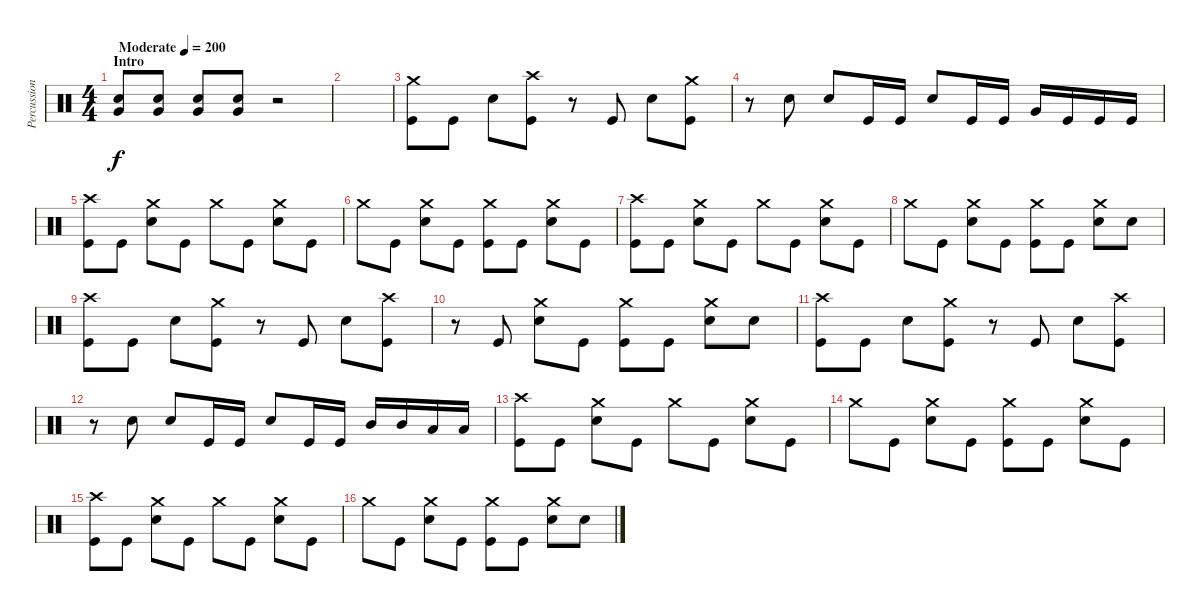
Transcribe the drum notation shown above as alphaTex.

\track ("Percussion" "Percussion") {instrument percussion}
\staff {score}
\articulation defaults
\ts (4 4)
\section ("" "Intro")
\tempo (200 "Moderate")
\clef neutral
\ks c
("Very Low Tom (hit)" "Electric Snare (hit)").8{dy f} ("Very Low Tom (hit)" "Electric Snare (hit)").8 ("Very Low Tom (hit)" "Electric Snare (hit)").8 ("Very Low Tom (hit)" "Electric Snare (hit)").8 r.2 |
|
("Crash medium (hit)" "Kick (hit)").8 "Kick (hit)".8 "Electric Snare (hit)".8 ("Crash high (hit)" "Kick (hit)").8 r.8 "Kick (hit)".8 "Electric Snare (hit)".8 ("Crash medium (hit)" "Kick (hit)").8 |
r.8 "Electric Snare (hit)".8 "Electric Snare (hit)".8 "Kick (hit)".16 "Kick (hit)".16 "Electric Snare (hit)".8 "Kick (hit)".16 "Kick (hit)".16 "Very Low Tom (hit)".16 "Kick (hit)".16 "Kick (hit)".16 "Kick (hit)".16 |
("Crash high (hit)" "Kick (hit)").8 "Kick (hit)".8 ("Crash medium (hit)" "Electric Snare (hit)").8 "Kick (hit)".8 "Crash medium (hit)".8 "Kick (hit)".8 ("Crash medium (hit)" "Electric Snare (hit)").8 "Kick (hit)".8 |
"Crash medium (hit)".8 "Kick (hit)".8 ("Crash medium (hit)" "Electric Snare (hit)").8 "Kick (hit)".8 ("Crash medium (hit)" "Kick (hit)").8 "Kick (hit)".8 ("Crash medium (hit)" "Electric Snare (hit)").8 "Kick (hit)".8 |
("Crash high (hit)" "Kick (hit)").8 "Kick (hit)".8 ("Crash medium (hit)" "Electric Snare (hit)").8 "Kick (hit)".8 "Crash medium (hit)".8 "Kick (hit)".8 ("Crash medium (hit)" "Electric Snare (hit)").8 "Kick (hit)".8 |
"Crash medium (hit)".8 "Kick (hit)".8 ("Crash medium (hit)" "Electric Snare (hit)").8 "Kick (hit)".8 ("Crash medium (hit)" "Kick (hit)").8 "Kick (hit)".8 ("Crash medium (hit)" "Electric Snare (hit)").8 "Electric Snare (hit)".8 |
("Crash high (hit)" "Kick (hit)").8 "Kick (hit)".8 "Electric Snare (hit)".8 ("Crash medium (hit)" "Kick (hit)").8 r.8 "Kick (hit)".8 "Electric Snare (hit)".8 ("Crash high (hit)" "Kick (hit)").8 |
r.8 "Kick (hit)".8 ("Crash medium (hit)" "Electric Snare (hit)").8 "Kick (hit)".8 ("Crash medium (hit)" "Kick (hit)").8 "Kick (hit)".8 ("Crash medium (hit)" "Electric Snare (hit)").8 "Electric Snare (hit)".8 |
("Crash high (hit)" "Kick (hit)").8 "Kick (hit)".8 "Electric Snare (hit)".8 ("Crash medium (hit)" "Kick (hit)").8 r.8 "Kick (hit)".8 "Electric Snare (hit)".8 ("Crash high (hit)" "Kick (hit)").8 |
r.8 "Electric Snare (hit)".8 "Electric Snare (hit)".8 "Kick (hit)".16 "Kick (hit)".16 "Electric Snare (hit)".8 "Kick (hit)".16 "Kick (hit)".16 "Mid Tom (hit)".16 "Mid Tom (hit)".16 "Low Tom (hit)".16 "Low Tom (hit)".16 |
("Crash high (hit)" "Kick (hit)").8 "Kick (hit)".8 ("Crash medium (hit)" "Electric Snare (hit)").8 "Kick (hit)".8 "Crash medium (hit)".8 "Kick (hit)".8 ("Crash medium (hit)" "Electric Snare (hit)").8 "Kick (hit)".8 |
"Crash medium (hit)".8 "Kick (hit)".8 ("Crash medium (hit)" "Electric Snare (hit)").8 "Kick (hit)".8 ("Crash medium (hit)" "Kick (hit)").8 "Kick (hit)".8 ("Crash medium (hit)" "Electric Snare (hit)").8 "Kick (hit)".8 |
("Crash high (hit)" "Kick (hit)").8 "Kick (hit)".8 ("Crash medium (hit)" "Electric Snare (hit)").8 "Kick (hit)".8 "Crash medium (hit)".8 "Kick (hit)".8 ("Crash medium (hit)" "Electric Snare (hit)").8 "Kick (hit)".8 |
"Crash medium (hit)".8 "Kick (hit)".8 ("Crash medium (hit)" "Electric Snare (hit)").8 "Kick (hit)".8 ("Crash medium (hit)" "Kick (hit)").8 "Kick (hit)".8 ("Crash medium (hit)" "Electric Snare (hit)").8 "Electric Snare (hit)".8
